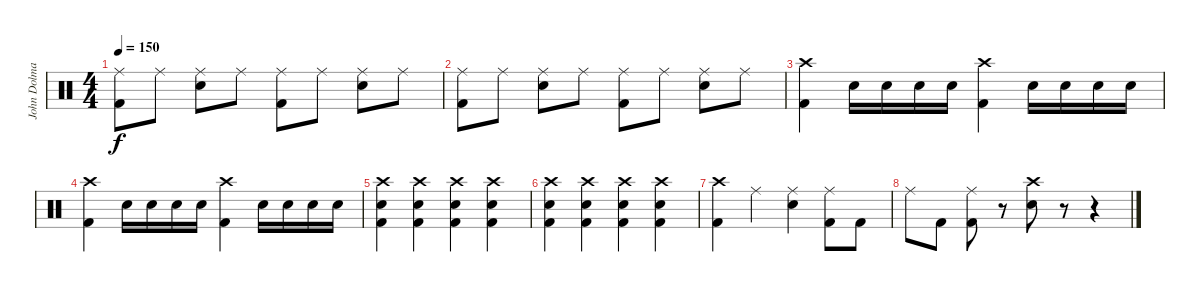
\track ("John Dolmayan" "John Dolma") {instrument percussion}
\staff {score}
\articulation defaults
\ts (4 4)
\tempo 150
\clef neutral
\ks c
("Ride (middle)" "Kick (hit) 2").8{dy f} "Ride (middle)".8 ("Ride (middle)" "Electric Snare (hit)").8 "Ride (middle)".8 ("Ride (middle)" "Kick (hit) 2").8 "Ride (middle)".8 ("Ride (middle)" "Electric Snare (hit)").8 "Ride (middle)".8 |
("Ride (middle)" "Kick (hit) 2").8 "Ride (middle)".8 ("Ride (middle)" "Electric Snare (hit)").8 "Ride (middle)".8 ("Ride (middle)" "Kick (hit) 2").8 "Ride (middle)".8 ("Ride (middle)" "Electric Snare (hit)").8 "Ride (middle)".8 |
("Crash high (hit)" "Kick (hit) 2").4 "Electric Snare (hit)".16 "Electric Snare (hit)".16 "Electric Snare (hit)".16 "Electric Snare (hit)".16 ("Crash high (hit)" "Kick (hit) 2").4 "Electric Snare (hit)".16 "Electric Snare (hit)".16 "Electric Snare (hit)".16 "Electric Snare (hit)".16 |
("Crash high (hit)" "Kick (hit) 2").4 "Electric Snare (hit)".16 "Electric Snare (hit)".16 "Electric Snare (hit)".16 "Electric Snare (hit)".16 ("Crash high (hit)" "Kick (hit) 2").4 "Electric Snare (hit)".16 "Electric Snare (hit)".16 "Electric Snare (hit)".16 "Electric Snare (hit)".16 |
("Crash high (hit)" "Electric Snare (hit)" "Kick (hit) 2").4 ("Crash high (hit)" "Electric Snare (hit)" "Kick (hit) 2").4 ("Crash high (hit)" "Electric Snare (hit)" "Kick (hit) 2").4 ("Crash high (hit)" "Electric Snare (hit)" "Kick (hit) 2").4 |
("Crash high (hit)" "Electric Snare (hit)" "Kick (hit) 2").4 ("Crash high (hit)" "Electric Snare (hit)" "Kick (hit) 2").4 ("Crash high (hit)" "Electric Snare (hit)" "Kick (hit) 2").4 ("Crash high (hit)" "Electric Snare (hit)" "Kick (hit) 2").4 |
("Crash high (hit)" "Kick (hit) 2").4 "Ride (middle)".4 ("Ride (middle)" "Electric Snare (hit)").4 ("Ride (middle)" "Kick (hit) 2").8 "Kick (hit) 2".8 |
"Ride (middle)".8 "Kick (hit) 2".8 ("Ride (middle)" "Kick (hit) 2").8 r.8 ("Crash high (hit)" "Electric Snare (hit)").8 r.8 r.4
